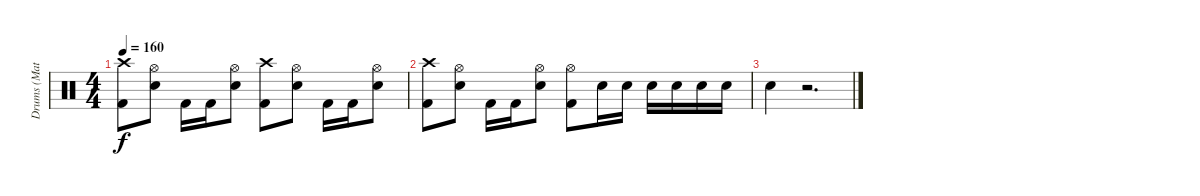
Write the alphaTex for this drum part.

\track ("Drums (Matt/Chris)" "Drums (Mat") {instrument percussion}
\staff {score}
\articulation defaults
\ts (4 4)
\tempo 160
\clef neutral
\ks c
("Crash high (hit)" "Kick (hit) 2").8{dy f} ("Hi-Hat (open)" "Snare (hit) 2").8 "Kick (hit) 2".16 "Kick (hit) 2".16 ("Hi-Hat (open)" "Snare (hit) 2").8 ("Crash high (hit)" "Kick (hit) 2").8 ("Hi-Hat (open)" "Snare (hit) 2").8 "Kick (hit) 2".16 "Kick (hit) 2".16 ("Hi-Hat (open)" "Snare (hit) 2").8 |
("Crash high (hit)" "Kick (hit) 2").8 ("Hi-Hat (open)" "Snare (hit) 2").8 "Kick (hit) 2".16 "Kick (hit) 2".16 ("Hi-Hat (open)" "Snare (hit) 2").8 ("Hi-Hat (open)" "Kick (hit) 2").8 "Snare (hit) 2".16 "Snare (hit) 2".16 "Snare (hit) 2".16 "Snare (hit) 2".16 "Snare (hit) 2".16 "Snare (hit) 2".16 |
"Snare (hit) 2".4 r.2{d}
